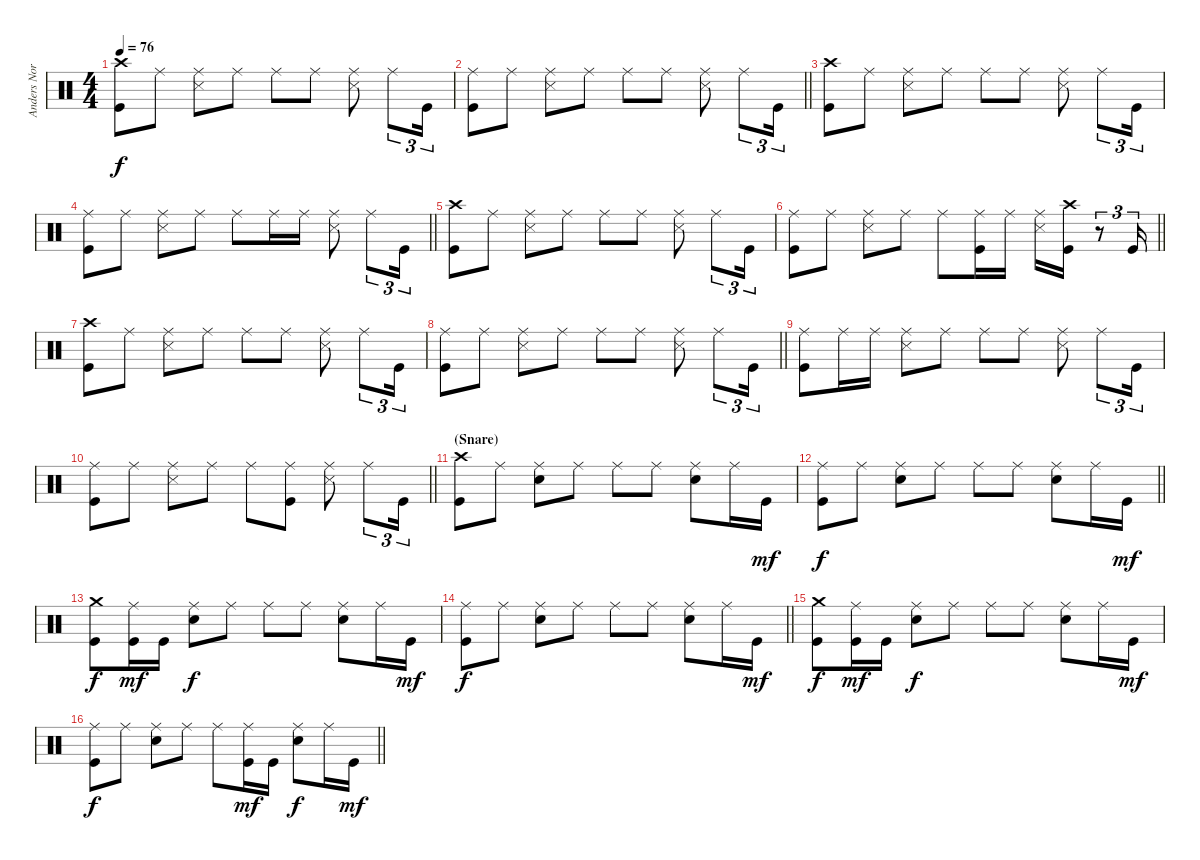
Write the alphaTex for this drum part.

\track ("Anders Nordin - Drums" "Anders Nor") {instrument percussion}
\staff {score}
\articulation defaults
\ts (4 4)
\tempo 76
\clef neutral
\ks c
("Crash high (hit)" "Kick (hit)").8{dy f} "Ride (middle)".8 ("Ride (middle)" "Snare (side stick) 3").8 "Ride (middle)".8 "Ride (middle)".8 "Ride (middle)".8 ("Ride (middle)" "Snare (side stick) 3").8 "Ride (middle)".8{tu (3 2)} "Kick (hit)".16{tu (3 2)} |
\barLineRight lightlight
("Ride (middle)" "Kick (hit)").8 "Ride (middle)".8 ("Ride (middle)" "Snare (side stick) 3").8 "Ride (middle)".8 "Ride (middle)".8 "Ride (middle)".8 ("Ride (middle)" "Snare (side stick) 3").8 "Ride (middle)".8{tu (3 2)} "Kick (hit)".16{tu (3 2)} |
("Crash high (hit)" "Kick (hit)").8 "Ride (middle)".8 ("Ride (middle)" "Snare (side stick) 3").8 "Ride (middle)".8 "Ride (middle)".8 "Ride (middle)".8 ("Ride (middle)" "Snare (side stick) 3").8 "Ride (middle)".8{tu (3 2)} "Kick (hit)".16{tu (3 2)} |
\barLineRight lightlight
("Ride (middle)" "Kick (hit)").8 "Ride (middle)".8 ("Ride (middle)" "Snare (side stick) 3").8 "Ride (middle)".8 "Ride (middle)".8 "Ride (middle)".16 "Ride (middle)".16 ("Ride (middle)" "Snare (side stick) 3").8 "Ride (middle)".8{tu (3 2)} "Kick (hit)".16{tu (3 2)} |
("Crash high (hit)" "Kick (hit)").8 "Ride (middle)".8 ("Ride (middle)" "Snare (side stick) 3").8 "Ride (middle)".8 "Ride (middle)".8 "Ride (middle)".8 ("Ride (middle)" "Snare (side stick) 3").8 "Ride (middle)".8{tu (3 2)} "Kick (hit)".16{tu (3 2)} |
\barLineRight lightlight
("Ride (middle)" "Kick (hit)").8 "Ride (middle)".8 ("Ride (middle)" "Snare (side stick) 3").8 "Ride (middle)".8 "Ride (middle)".8 ("Ride (middle)" "Kick (hit)").16 "Ride (middle)".16 ("Ride (middle)" "Snare (side stick) 3").16 ("Crash high (hit)" "Kick (hit)").16 r.8{tu (3 2)} "Kick (hit)".16{tu (3 2)} |
("Crash high (hit)" "Kick (hit)").8 "Ride (middle)".8 ("Ride (middle)" "Snare (side stick) 3").8 "Ride (middle)".8 "Ride (middle)".8 "Ride (middle)".8 ("Ride (middle)" "Snare (side stick) 3").8 "Ride (middle)".8{tu (3 2)} "Kick (hit)".16{tu (3 2)} |
\barLineRight lightlight
("Ride (middle)" "Kick (hit)").8 "Ride (middle)".8 ("Ride (middle)" "Snare (side stick) 3").8 "Ride (middle)".8 "Ride (middle)".8 "Ride (middle)".8 ("Ride (middle)" "Snare (side stick) 3").8 "Ride (middle)".8{tu (3 2)} "Kick (hit)".16{tu (3 2)} |
("Ride (middle)" "Kick (hit)").8 "Ride (middle)".16 "Ride (middle)".16 ("Ride (middle)" "Snare (side stick) 3").8 "Ride (middle)".8 "Ride (middle)".8 "Ride (middle)".8 ("Ride (middle)" "Snare (side stick) 3").8 "Ride (middle)".8{tu (3 2)} "Kick (hit)".16{tu (3 2)} |
\barLineRight lightlight
("Ride (middle)" "Kick (hit)").8 "Ride (middle)".8 ("Ride (middle)" "Snare (side stick) 3").8 "Ride (middle)".8 "Ride (middle)".8 ("Ride (middle)" "Kick (hit)").8 ("Ride (middle)" "Snare (side stick) 3").8 "Ride (middle)".8{tu (3 2)} "Kick (hit)".16{tu (3 2)} |
\section ("" "(Snare)")
("Crash high (hit)" "Kick (hit)").8 "Ride (middle)".8 ("Ride (middle)" "Snare (hit) 2").8 "Ride (middle)".8 "Ride (middle)".8 "Ride (middle)".8 ("Ride (middle)" "Snare (hit) 2").8 "Ride (middle)".16 "Kick (hit)".16{dy mf} |
\barLineRight lightlight
("Ride (middle)" "Kick (hit)").8{dy f} "Ride (middle)".8 ("Ride (middle)" "Snare (hit) 2").8 "Ride (middle)".8 "Ride (middle)".8 "Ride (middle)".8 ("Ride (middle)" "Snare (hit) 2").8 "Ride (middle)".16 "Kick (hit)".16{dy mf} |
("Crash medium (hit)" "Kick (hit)").8{dy f} ("Ride (middle)" "Kick (hit)").16{dy mf} "Kick (hit)".16 ("Ride (middle)" "Snare (hit) 2").8{dy f} "Ride (middle)".8 "Ride (middle)".8 "Ride (middle)".8 ("Ride (middle)" "Snare (hit) 2").8 "Ride (middle)".16 "Kick (hit)".16{dy mf} |
\barLineRight lightlight
("Ride (middle)" "Kick (hit)").8{dy f} "Ride (middle)".8 ("Ride (middle)" "Snare (hit) 2").8 "Ride (middle)".8 "Ride (middle)".8 "Ride (middle)".8 ("Ride (middle)" "Snare (hit) 2").8 "Ride (middle)".16 "Kick (hit)".16{dy mf} |
("Crash medium (hit)" "Kick (hit)").8{dy f} ("Ride (middle)" "Kick (hit)").16{dy mf} "Kick (hit)".16 ("Ride (middle)" "Snare (hit) 2").8{dy f} "Ride (middle)".8 "Ride (middle)".8 "Ride (middle)".8 ("Ride (middle)" "Snare (hit) 2").8 "Ride (middle)".16 "Kick (hit)".16{dy mf} |
\barLineRight lightlight
("Ride (middle)" "Kick (hit)").8{dy f} "Ride (middle)".8 ("Ride (middle)" "Snare (hit) 2").8 "Ride (middle)".8 "Ride (middle)".8 ("Ride (middle)" "Kick (hit)").16{dy mf} "Kick (hit)".16 ("Ride (middle)" "Snare (hit) 2").8{dy f} "Ride (middle)".16 "Kick (hit)".16{dy mf}
